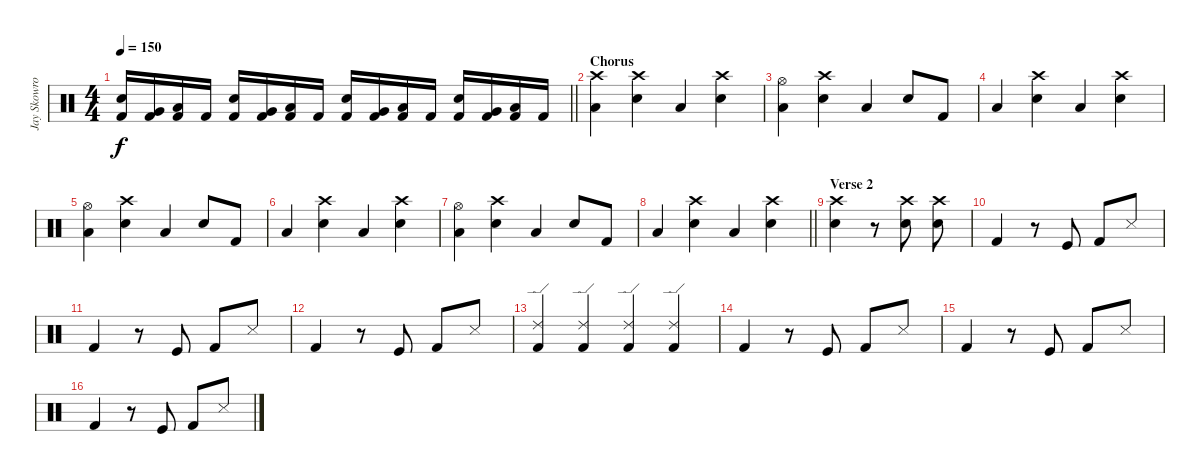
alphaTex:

\track ("Jay Skowronek (Drums)" "Jay Skowro") {instrument percussion}
\staff {score}
\articulation defaults
\ts (4 4)
\tempo 150
\clef neutral
\barLineRight lightlight
\ks c
("Electric Snare (hit)" "Kick (hit) 2").16{dy f} ("Very Low Tom (hit)" "Kick (hit) 2").16 ("Low Floor Tom (hit)" "Kick (hit) 2").16 "Kick (hit) 2".16 ("Electric Snare (hit)" "Kick (hit) 2").16 ("Very Low Tom (hit)" "Kick (hit) 2").16 ("Low Floor Tom (hit)" "Kick (hit) 2").16 "Kick (hit) 2".16 ("Electric Snare (hit)" "Kick (hit) 2").16 ("Very Low Tom (hit)" "Kick (hit) 2").16 ("Low Floor Tom (hit)" "Kick (hit) 2").16 "Kick (hit) 2".16 ("Electric Snare (hit)" "Kick (hit) 2").16 ("Very Low Tom (hit)" "Kick (hit) 2").16 ("Low Floor Tom (hit)" "Kick (hit) 2").16 "Kick (hit) 2".16 |
\section ("" "Chorus")
("Low Floor Tom (hit)" "Crash high (hit)").4 ("Electric Snare (hit)" "Crash high (hit)").4 "Low Floor Tom (hit)".4 ("Electric Snare (hit)" "Crash high (hit)").4 |
("Low Floor Tom (hit)" "Hi-Hat (open)").4 ("Electric Snare (hit)" "Crash high (hit)").4 "Low Floor Tom (hit)".4 "Electric Snare (hit)".8 "Kick (hit) 2".8 |
"Low Floor Tom (hit)".4 ("Electric Snare (hit)" "Crash high (hit)").4 "Low Floor Tom (hit)".4 ("Electric Snare (hit)" "Crash high (hit)").4 |
("Low Floor Tom (hit)" "Hi-Hat (open)").4 ("Electric Snare (hit)" "Crash high (hit)").4 "Low Floor Tom (hit)".4 "Electric Snare (hit)".8 "Kick (hit) 2".8 |
"Low Floor Tom (hit)".4 ("Electric Snare (hit)" "Crash high (hit)").4 "Low Floor Tom (hit)".4 ("Electric Snare (hit)" "Crash high (hit)").4 |
("Low Floor Tom (hit)" "Hi-Hat (open)").4 ("Electric Snare (hit)" "Crash high (hit)").4 "Low Floor Tom (hit)".4 "Electric Snare (hit)".8 "Kick (hit) 2".8 |
\barLineRight lightlight "Low Floor Tom (hit)".4
("Electric Snare (hit)" "Crash high (hit)").4 "Low Floor Tom (hit)".4 ("Electric Snare (hit)" "Crash high (hit)").4 |
\section ("" "Verse 2")
("Electric Snare (hit)" "Crash high (hit)").4 r.8 ("Electric Snare (hit)" "Crash high (hit)").8 ("Electric Snare (hit)" "Crash high (hit)").8 |
"Kick (hit) 2".4 r.8 "Kick (hit)".8 "Kick (hit) 2".8 "Snare (side stick) 3".8 |
"Kick (hit) 2".4 r.8 "Kick (hit)".8 "Kick (hit) 2".8 "Snare (side stick) 3".8 |
"Kick (hit) 2".4 r.8 "Kick (hit)".8 "Kick (hit) 2".8 "Snare (side stick) 3".8 |
("Ride (edge) 2" "Kick (hit) 2").4 ("Ride (edge) 2" "Kick (hit) 2").4 ("Ride (edge) 2" "Kick (hit) 2").4 ("Ride (edge) 2" "Kick (hit) 2").4 |
"Kick (hit) 2".4 r.8 "Kick (hit)".8 "Kick (hit) 2".8 "Snare (side stick) 3".8 |
"Kick (hit) 2".4 r.8 "Kick (hit)".8 "Kick (hit) 2".8 "Snare (side stick) 3".8 |
"Kick (hit) 2".4 r.8 "Kick (hit)".8 "Kick (hit) 2".8 "Snare (side stick) 3".8
